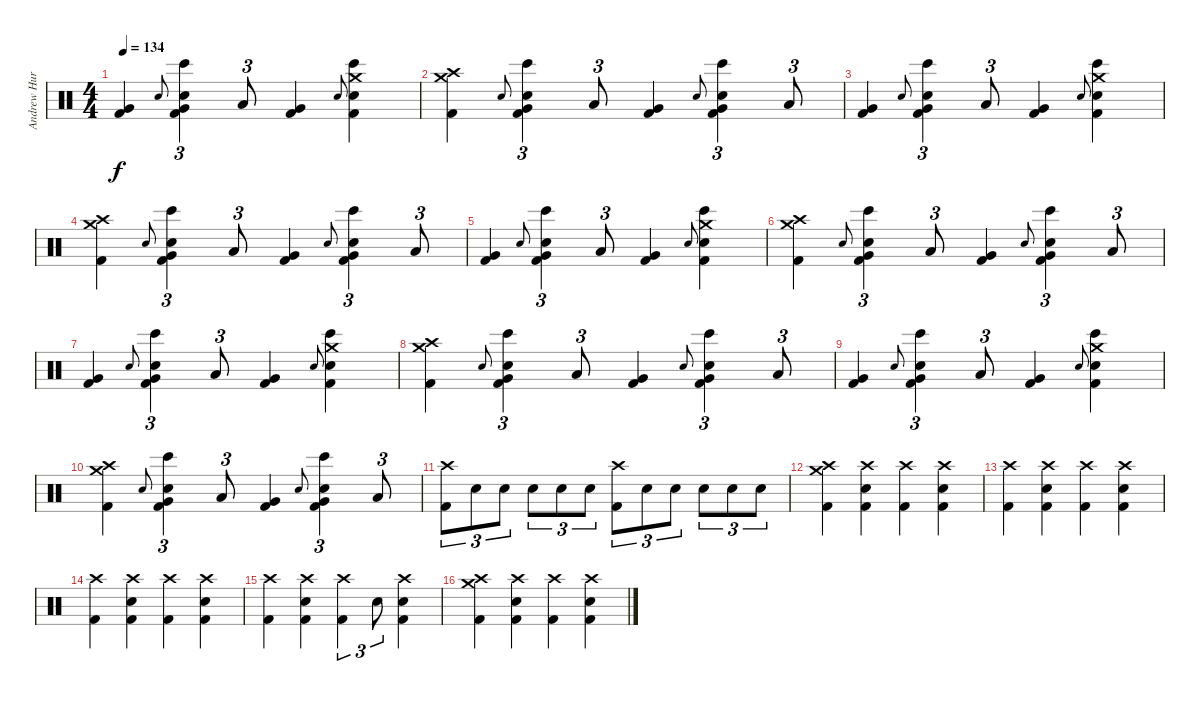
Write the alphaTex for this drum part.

\track ("Andrew Hurley (Drums)" "Andrew Hur") {instrument percussion}
\staff {score}
\articulation defaults
\ts (4 4)
\tempo 134
\clef neutral
\ks c
("Very Low Tom (hit)" "Kick (hit) 2").4{dy f} "Snare (hit)".8{gr onbeat} ("Very Low Tom (hit)" "Snare (hit) 2" "Kick (hit) 2" "Bongo High (hit)").4{tu (3 2)} "Low Tom (hit)".8{tu (3 2)} ("Very Low Tom (hit)" "Kick (hit) 2").4 "Snare (hit)".8{gr onbeat} ("Crash medium (hit)" "Snare (hit) 2" "Kick (hit) 2" "Bongo High (hit)").4 |
("Crash high (hit)" "Crash medium (hit)" "Kick (hit) 2").4 "Snare (hit)".8{gr onbeat} ("Very Low Tom (hit)" "Snare (hit) 2" "Kick (hit) 2" "Bongo High (hit)").4{tu (3 2)} "Low Tom (hit)".8{tu (3 2)} ("Very Low Tom (hit)" "Kick (hit) 2").4 "Snare (hit)".8{gr onbeat} ("Very Low Tom (hit)" "Snare (hit) 2" "Kick (hit) 2" "Bongo High (hit)").4{tu (3 2)} "Low Tom (hit)".8{tu (3 2)} |
("Very Low Tom (hit)" "Kick (hit) 2").4 "Snare (hit)".8{gr onbeat} ("Very Low Tom (hit)" "Snare (hit) 2" "Kick (hit) 2" "Bongo High (hit)").4{tu (3 2)} "Low Tom (hit)".8{tu (3 2)} ("Very Low Tom (hit)" "Kick (hit) 2").4 "Snare (hit)".8{gr onbeat} ("Crash medium (hit)" "Snare (hit) 2" "Kick (hit) 2" "Bongo High (hit)").4 |
("Crash high (hit)" "Crash medium (hit)" "Kick (hit) 2").4 "Snare (hit)".8{gr onbeat} ("Very Low Tom (hit)" "Snare (hit) 2" "Kick (hit) 2" "Bongo High (hit)").4{tu (3 2)} "Low Tom (hit)".8{tu (3 2)} ("Very Low Tom (hit)" "Kick (hit) 2").4 "Snare (hit)".8{gr onbeat} ("Very Low Tom (hit)" "Snare (hit) 2" "Kick (hit) 2" "Bongo High (hit)").4{tu (3 2)} "Low Tom (hit)".8{tu (3 2)} |
("Very Low Tom (hit)" "Kick (hit) 2").4 "Snare (hit)".8{gr onbeat} ("Very Low Tom (hit)" "Snare (hit) 2" "Kick (hit) 2" "Bongo High (hit)").4{tu (3 2)} "Low Tom (hit)".8{tu (3 2)} ("Very Low Tom (hit)" "Kick (hit) 2").4 "Snare (hit)".8{gr onbeat} ("Crash medium (hit)" "Snare (hit) 2" "Kick (hit) 2" "Bongo High (hit)").4 |
("Crash high (hit)" "Crash medium (hit)" "Kick (hit) 2").4 "Snare (hit)".8{gr onbeat} ("Very Low Tom (hit)" "Snare (hit) 2" "Kick (hit) 2" "Bongo High (hit)").4{tu (3 2)} "Low Tom (hit)".8{tu (3 2)} ("Very Low Tom (hit)" "Kick (hit) 2").4 "Snare (hit)".8{gr onbeat} ("Very Low Tom (hit)" "Snare (hit) 2" "Kick (hit) 2" "Bongo High (hit)").4{tu (3 2)} "Low Tom (hit)".8{tu (3 2)} |
("Very Low Tom (hit)" "Kick (hit) 2").4 "Snare (hit)".8{gr onbeat} ("Very Low Tom (hit)" "Snare (hit) 2" "Kick (hit) 2" "Bongo High (hit)").4{tu (3 2)} "Low Tom (hit)".8{tu (3 2)} ("Very Low Tom (hit)" "Kick (hit) 2").4 "Snare (hit)".8{gr onbeat} ("Crash medium (hit)" "Snare (hit) 2" "Kick (hit) 2" "Bongo High (hit)").4 |
("Crash high (hit)" "Crash medium (hit)" "Kick (hit) 2").4 "Snare (hit)".8{gr onbeat} ("Very Low Tom (hit)" "Snare (hit) 2" "Kick (hit) 2" "Bongo High (hit)").4{tu (3 2)} "Low Tom (hit)".8{tu (3 2)} ("Very Low Tom (hit)" "Kick (hit) 2").4 "Snare (hit)".8{gr onbeat} ("Very Low Tom (hit)" "Snare (hit) 2" "Kick (hit) 2" "Bongo High (hit)").4{tu (3 2)} "Low Tom (hit)".8{tu (3 2)} |
("Very Low Tom (hit)" "Kick (hit) 2").4 "Snare (hit)".8{gr onbeat} ("Very Low Tom (hit)" "Snare (hit) 2" "Kick (hit) 2" "Bongo High (hit)").4{tu (3 2)} "Low Tom (hit)".8{tu (3 2)} ("Very Low Tom (hit)" "Kick (hit) 2").4 "Snare (hit)".8{gr onbeat} ("Crash medium (hit)" "Snare (hit) 2" "Kick (hit) 2" "Bongo High (hit)").4 |
("Crash high (hit)" "Crash medium (hit)" "Kick (hit) 2").4 "Snare (hit)".8{gr onbeat} ("Very Low Tom (hit)" "Snare (hit) 2" "Kick (hit) 2" "Bongo High (hit)").4{tu (3 2)} "Low Tom (hit)".8{tu (3 2)} ("Very Low Tom (hit)" "Kick (hit) 2").4 "Snare (hit)".8{gr onbeat} ("Very Low Tom (hit)" "Snare (hit) 2" "Kick (hit) 2" "Bongo High (hit)").4{tu (3 2)} "Low Tom (hit)".8{tu (3 2)} |
("Crash high (hit)" "Kick (hit) 2").8{tu (3 2)} "Snare (hit) 2".8{tu (3 2)} "Snare (hit) 2".8{tu (3 2)} "Snare (hit) 2".8{tu (3 2)} "Snare (hit) 2".8{tu (3 2)} "Snare (hit) 2".8{tu (3 2)} ("Crash high (hit)" "Kick (hit) 2").8{tu (3 2)} "Snare (hit) 2".8{tu (3 2)} "Snare (hit) 2".8{tu (3 2)} "Snare (hit) 2".8{tu (3 2)} "Snare (hit) 2".8{tu (3 2)} "Snare (hit) 2".8{tu (3 2)} |
("Crash high (hit)" "Crash medium (hit)" "Kick (hit) 2").4 ("Crash high (hit)" "Snare (hit) 2" "Kick (hit) 2").4 ("Crash high (hit)" "Kick (hit) 2").4 ("Crash high (hit)" "Snare (hit) 2" "Kick (hit) 2").4 |
("Crash high (hit)" "Kick (hit) 2").4 ("Crash high (hit)" "Snare (hit) 2" "Kick (hit) 2").4 ("Crash high (hit)" "Kick (hit) 2").4 ("Crash high (hit)" "Snare (hit) 2" "Kick (hit) 2").4 |
("Crash high (hit)" "Kick (hit) 2").4 ("Crash high (hit)" "Snare (hit) 2" "Kick (hit) 2").4 ("Crash high (hit)" "Kick (hit) 2").4 ("Crash high (hit)" "Snare (hit) 2" "Kick (hit) 2").4 |
("Crash high (hit)" "Kick (hit) 2").4 ("Crash high (hit)" "Snare (hit) 2" "Kick (hit) 2").4 ("Crash high (hit)" "Kick (hit) 2").4{tu (3 2)} "Snare (hit) 2".8{tu (3 2)} ("Crash high (hit)" "Snare (hit) 2" "Kick (hit) 2").4 |
("Crash high (hit)" "Crash medium (hit)" "Kick (hit) 2").4 ("Crash high (hit)" "Snare (hit) 2" "Kick (hit) 2").4 ("Crash high (hit)" "Kick (hit) 2").4 ("Crash high (hit)" "Snare (hit) 2" "Kick (hit) 2").4
